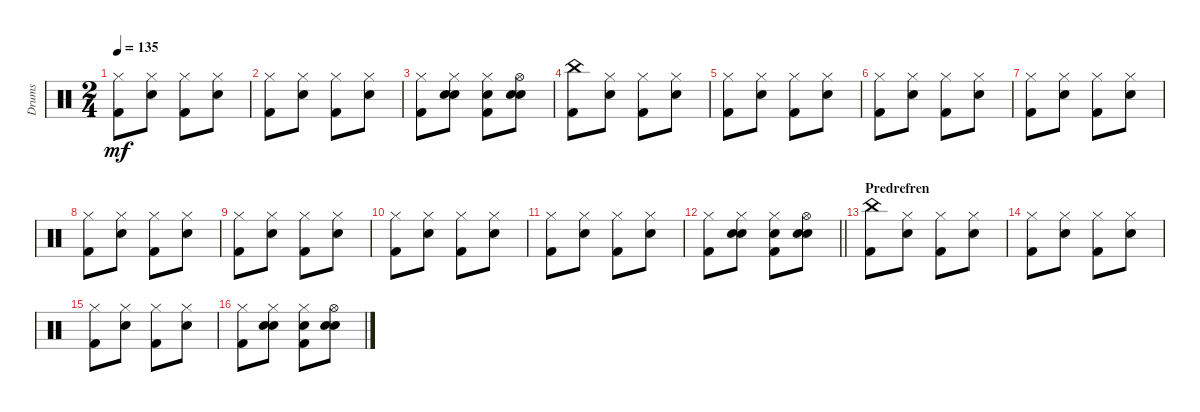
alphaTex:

\track ("Drums" "Drums") {instrument percussion}
\staff {score}
\articulation defaults
\ts (2 4)
\tempo 135
\clef neutral
\ks c
("Hi-Hat (closed)" "Kick (hit) 2").8{dy mf} ("Hi-Hat (closed)" "Electric Snare (hit)").8 ("Hi-Hat (closed)" "Kick (hit) 2").8 ("Hi-Hat (closed)" "Electric Snare (hit)").8 |
("Hi-Hat (closed)" "Kick (hit) 2").8 ("Hi-Hat (closed)" "Electric Snare (hit)").8 ("Hi-Hat (closed)" "Kick (hit) 2").8 ("Hi-Hat (closed)" "Electric Snare (hit)").8 |
("Hi-Hat (closed)" "Kick (hit) 2").8 ("Hi-Hat (closed)" "Electric Snare (hit)" "Hand Clap (hit)").8 ("Hi-Hat (closed)" "Hand Clap (hit)" "Kick (hit) 2").8 ("Hi-Hat (open)" "Electric Snare (hit)" "Hand Clap (hit)").8 |
("China (hit)" "Kick (hit) 2").8 ("Hi-Hat (closed)" "Electric Snare (hit)").8 ("Hi-Hat (closed)" "Kick (hit) 2").8 ("Hi-Hat (closed)" "Electric Snare (hit)").8 |
("Hi-Hat (closed)" "Kick (hit) 2").8 ("Hi-Hat (closed)" "Electric Snare (hit)").8 ("Hi-Hat (closed)" "Kick (hit) 2").8 ("Hi-Hat (closed)" "Electric Snare (hit)").8 |
("Hi-Hat (closed)" "Kick (hit) 2").8 ("Hi-Hat (closed)" "Electric Snare (hit)").8 ("Hi-Hat (closed)" "Kick (hit) 2").8 ("Hi-Hat (closed)" "Electric Snare (hit)").8 |
("Hi-Hat (closed)" "Kick (hit) 2").8 ("Hi-Hat (closed)" "Electric Snare (hit)").8 ("Hi-Hat (closed)" "Kick (hit) 2").8 ("Hi-Hat (closed)" "Electric Snare (hit)").8 |
("Hi-Hat (closed)" "Kick (hit) 2").8 ("Hi-Hat (closed)" "Electric Snare (hit)").8 ("Hi-Hat (closed)" "Kick (hit) 2").8 ("Hi-Hat (closed)" "Electric Snare (hit)").8 |
("Hi-Hat (closed)" "Kick (hit) 2").8 ("Hi-Hat (closed)" "Electric Snare (hit)").8 ("Hi-Hat (closed)" "Kick (hit) 2").8 ("Hi-Hat (closed)" "Electric Snare (hit)").8 |
("Hi-Hat (closed)" "Kick (hit) 2").8 ("Hi-Hat (closed)" "Electric Snare (hit)").8 ("Hi-Hat (closed)" "Kick (hit) 2").8 ("Hi-Hat (closed)" "Electric Snare (hit)").8 |
("Hi-Hat (closed)" "Kick (hit) 2").8 ("Hi-Hat (closed)" "Electric Snare (hit)").8 ("Hi-Hat (closed)" "Kick (hit) 2").8 ("Hi-Hat (closed)" "Electric Snare (hit)").8 |
\barLineRight lightlight
("Hi-Hat (closed)" "Kick (hit) 2").8 ("Hi-Hat (closed)" "Electric Snare (hit)" "Hand Clap (hit)").8 ("Hi-Hat (closed)" "Hand Clap (hit)" "Kick (hit) 2").8 ("Hi-Hat (open)" "Electric Snare (hit)" "Hand Clap (hit)").8 |
\section ("" "Predrefren")
("China (hit)" "Kick (hit) 2").8 ("Hi-Hat (closed)" "Electric Snare (hit)").8 ("Hi-Hat (closed)" "Kick (hit) 2").8 ("Hi-Hat (closed)" "Electric Snare (hit)").8 |
("Hi-Hat (closed)" "Kick (hit) 2").8 ("Hi-Hat (closed)" "Electric Snare (hit)").8 ("Hi-Hat (closed)" "Kick (hit) 2").8 ("Hi-Hat (closed)" "Electric Snare (hit)").8 |
("Hi-Hat (closed)" "Kick (hit) 2").8 ("Hi-Hat (closed)" "Electric Snare (hit)").8 ("Hi-Hat (closed)" "Kick (hit) 2").8 ("Hi-Hat (closed)" "Electric Snare (hit)").8 |
("Hi-Hat (closed)" "Kick (hit) 2").8 ("Hi-Hat (closed)" "Electric Snare (hit)" "Hand Clap (hit)").8 ("Hi-Hat (closed)" "Hand Clap (hit)" "Kick (hit) 2").8 ("Hi-Hat (open)" "Electric Snare (hit)" "Hand Clap (hit)").8
